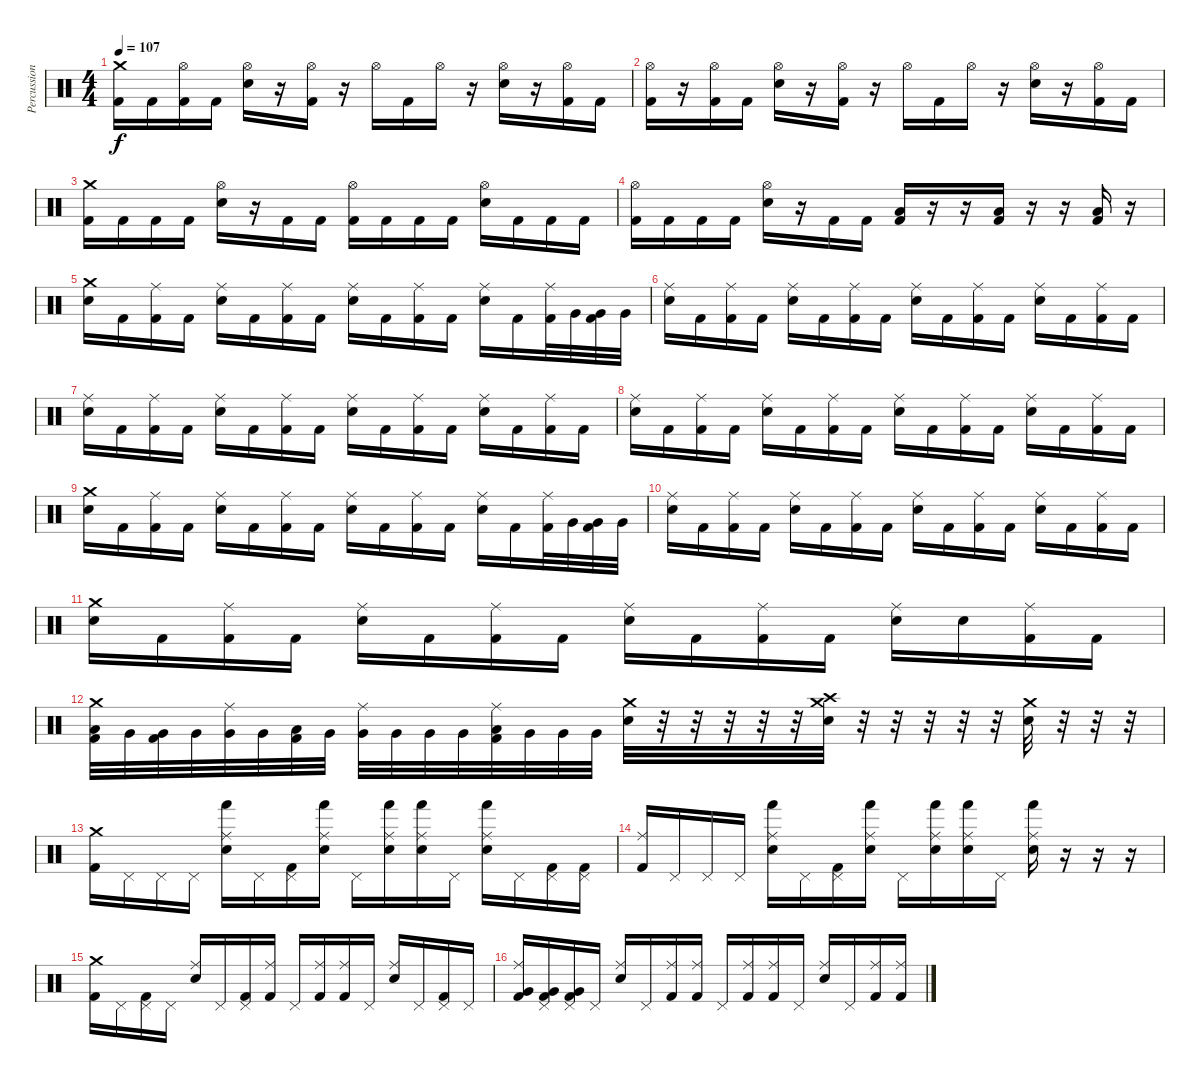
\track ("Percussion" "Percussion") {instrument percussion}
\staff {score}
\articulation defaults
\ts (4 4)
\tempo 107
\clef neutral
\ks c
("Crash medium (hit)" "Kick (hit) 2").16{dy f} "Kick (hit) 2".16 ("Hi-Hat (open)" "Kick (hit) 2").16 "Kick (hit) 2".16 ("Hi-Hat (open)" "Electric Snare (hit)").16 r.16 ("Hi-Hat (open)" "Kick (hit) 2").16 r.16 "Hi-Hat (open)".16 "Kick (hit) 2".16 "Hi-Hat (open)".16 r.16 ("Hi-Hat (open)" "Electric Snare (hit)").16 r.16 ("Hi-Hat (open)" "Kick (hit) 2").16 "Kick (hit) 2".16 |
("Hi-Hat (open)" "Kick (hit) 2").16 r.16 ("Hi-Hat (open)" "Kick (hit) 2").16 "Kick (hit) 2".16 ("Hi-Hat (open)" "Electric Snare (hit)").16 r.16 ("Hi-Hat (open)" "Kick (hit) 2").16 r.16 "Hi-Hat (open)".16 "Kick (hit) 2".16 "Hi-Hat (open)".16 r.16 ("Hi-Hat (open)" "Electric Snare (hit)").16 r.16 ("Hi-Hat (open)" "Kick (hit) 2").16 "Kick (hit) 2".16 |
("Crash medium (hit)" "Kick (hit) 2").16 "Kick (hit) 2".16 "Kick (hit) 2".16 "Kick (hit) 2".16 ("Hi-Hat (open)" "Electric Snare (hit)").16 r.16 "Kick (hit) 2".16 "Kick (hit) 2".16 ("Hi-Hat (open)" "Kick (hit) 2").16 "Kick (hit) 2".16 "Kick (hit) 2".16 "Kick (hit) 2".16 ("Hi-Hat (open)" "Electric Snare (hit)").16 "Kick (hit) 2".16 "Kick (hit) 2".16 "Kick (hit) 2".16 |
("Hi-Hat (open)" "Kick (hit) 2").16 "Kick (hit) 2".16 "Kick (hit) 2".16 "Kick (hit) 2".16 ("Hi-Hat (open)" "Electric Snare (hit)").16 r.16 "Kick (hit) 2".16 "Kick (hit) 2".16 ("Low Tom (hit)" "Kick (hit) 2").16 r.16 r.16 ("Low Tom (hit)" "Kick (hit) 2").16 r.16 r.16 ("Low Tom (hit)" "Kick (hit) 2").16 r.16 |
("Crash medium (hit)" "Electric Snare (hit)").16 "Kick (hit) 2".16 ("Ride (middle)" "Kick (hit) 2").16 "Kick (hit) 2".16 ("Ride (middle)" "Electric Snare (hit)").16 "Kick (hit) 2".16 ("Ride (middle)" "Kick (hit) 2").16 "Kick (hit) 2".16 ("Ride (middle)" "Electric Snare (hit)").16 "Kick (hit) 2".16 ("Ride (middle)" "Kick (hit) 2").16 "Kick (hit) 2".16 ("Ride (middle)" "Electric Snare (hit)").16 "Kick (hit) 2".16 ("Ride (middle)" "Kick (hit) 2").32 "Very Low Tom (hit)".32 ("Very Low Tom (hit)" "Kick (hit) 2").32 "Very Low Tom (hit)".32 |
("Ride (middle)" "Electric Snare (hit)").16 "Kick (hit) 2".16 ("Ride (middle)" "Kick (hit) 2").16 "Kick (hit) 2".16 ("Ride (middle)" "Electric Snare (hit)").16 "Kick (hit) 2".16 ("Ride (middle)" "Kick (hit) 2").16 "Kick (hit) 2".16 ("Ride (middle)" "Electric Snare (hit)").16 "Kick (hit) 2".16 ("Ride (middle)" "Kick (hit) 2").16 "Kick (hit) 2".16 ("Ride (middle)" "Electric Snare (hit)").16 "Kick (hit) 2".16 ("Ride (middle)" "Kick (hit) 2").16 "Kick (hit) 2".16 |
("Ride (middle)" "Electric Snare (hit)").16 "Kick (hit) 2".16 ("Ride (middle)" "Kick (hit) 2").16 "Kick (hit) 2".16 ("Ride (middle)" "Electric Snare (hit)").16 "Kick (hit) 2".16 ("Ride (middle)" "Kick (hit) 2").16 "Kick (hit) 2".16 ("Ride (middle)" "Electric Snare (hit)").16 "Kick (hit) 2".16 ("Ride (middle)" "Kick (hit) 2").16 "Kick (hit) 2".16 ("Ride (middle)" "Electric Snare (hit)").16 "Kick (hit) 2".16 ("Ride (middle)" "Kick (hit) 2").16 "Kick (hit) 2".16 |
("Ride (middle)" "Electric Snare (hit)").16 "Kick (hit) 2".16 ("Ride (middle)" "Kick (hit) 2").16 "Kick (hit) 2".16 ("Ride (middle)" "Electric Snare (hit)").16 "Kick (hit) 2".16 ("Ride (middle)" "Kick (hit) 2").16 "Kick (hit) 2".16 ("Ride (middle)" "Electric Snare (hit)").16 "Kick (hit) 2".16 ("Ride (middle)" "Kick (hit) 2").16 "Kick (hit) 2".16 ("Ride (middle)" "Electric Snare (hit)").16 "Kick (hit) 2".16 ("Ride (middle)" "Kick (hit) 2").16 "Kick (hit) 2".16 |
("Crash medium (hit)" "Electric Snare (hit)").16 "Kick (hit) 2".16 ("Ride (middle)" "Kick (hit) 2").16 "Kick (hit) 2".16 ("Ride (middle)" "Electric Snare (hit)").16 "Kick (hit) 2".16 ("Ride (middle)" "Kick (hit) 2").16 "Kick (hit) 2".16 ("Ride (middle)" "Electric Snare (hit)").16 "Kick (hit) 2".16 ("Ride (middle)" "Kick (hit) 2").16 "Kick (hit) 2".16 ("Ride (middle)" "Electric Snare (hit)").16 "Kick (hit) 2".16 ("Ride (middle)" "Kick (hit) 2").32 "Very Low Tom (hit)".32 ("Very Low Tom (hit)" "Kick (hit) 2").32 "Very Low Tom (hit)".32 |
("Ride (middle)" "Electric Snare (hit)").16 "Kick (hit) 2".16 ("Ride (middle)" "Kick (hit) 2").16 "Kick (hit) 2".16 ("Ride (middle)" "Electric Snare (hit)").16 "Kick (hit) 2".16 ("Ride (middle)" "Kick (hit) 2").16 "Kick (hit) 2".16 ("Ride (middle)" "Electric Snare (hit)").16 "Kick (hit) 2".16 ("Ride (middle)" "Kick (hit) 2").16 "Kick (hit) 2".16 ("Ride (middle)" "Electric Snare (hit)").16 "Kick (hit) 2".16 ("Ride (middle)" "Kick (hit) 2").16 "Kick (hit) 2".16 |
("Crash medium (hit)" "Electric Snare (hit)").16 "Kick (hit) 2".16 ("Ride (middle)" "Kick (hit) 2").16 "Kick (hit) 2".16 ("Ride (middle)" "Electric Snare (hit)").16 "Kick (hit) 2".16 ("Ride (middle)" "Kick (hit) 2").16 "Kick (hit) 2".16 ("Ride (middle)" "Electric Snare (hit)").16 "Kick (hit) 2".16 ("Ride (middle)" "Kick (hit) 2").16 "Kick (hit) 2".16 ("Ride (middle)" "Electric Snare (hit)").16 "Electric Snare (hit)".16 ("Ride (middle)" "Kick (hit) 2").16 "Kick (hit) 2".16 |
("Crash medium (hit)" "Low Tom (hit)" "Kick (hit) 2").32 "Very Low Tom (hit)".32 ("Very Low Tom (hit)" "Kick (hit) 2").32 "Very Low Tom (hit)".32 ("Ride (middle)" "Very Low Tom (hit)").32 "Very Low Tom (hit)".32 ("Low Tom (hit)" "Kick (hit) 2").32 "Very Low Tom (hit)".32 ("Ride (middle)" "Very Low Tom (hit)").32 "Very Low Tom (hit)".32 "Very Low Tom (hit)".32 "Very Low Tom (hit)".32 ("Ride (middle)" "Low Tom (hit)" "Kick (hit) 2").32 "Very Low Tom (hit)".32 "Very Low Tom (hit)".32 "Very Low Tom (hit)".32 ("Crash medium (hit)" "Electric Snare (hit)").32 r.32 r.32 r.32 r.32 r.32 ("Crash medium (hit)" "Crash high (hit)" "Electric Snare (hit)").32 r.32 r.32 r.32 r.32 r.32 ("Crash medium (hit)" "Electric Snare (hit)").32 r.32 r.32 r.32 |
("Crash medium (hit)" "Kick (hit) 2").16 "Pedal Hi-Hat (hit)".16 "Pedal Hi-Hat (hit)".16 "Pedal Hi-Hat (hit)".16 ("Ride (middle)" "Hand (hit)" "Electric Snare (hit)").16 "Pedal Hi-Hat (hit)".16 ("Pedal Hi-Hat (hit)" "Kick (hit) 2").16 ("Ride (middle)" "Hand (hit)" "Electric Snare (hit)").16 "Pedal Hi-Hat (hit)".16 ("Ride (middle)" "Hand (hit)" "Electric Snare (hit)").16 ("Ride (middle)" "Hand (hit)" "Electric Snare (hit)").16 "Pedal Hi-Hat (hit)".16 ("Ride (middle)" "Hand (hit)" "Electric Snare (hit)").16 "Pedal Hi-Hat (hit)".16 ("Pedal Hi-Hat (hit)" "Kick (hit) 2").16 ("Pedal Hi-Hat (hit)" "Kick (hit) 2").16 |
("Ride (middle)" "Kick (hit) 2").16 "Pedal Hi-Hat (hit)".16 "Pedal Hi-Hat (hit)".16 "Pedal Hi-Hat (hit)".16 ("Ride (middle)" "Hand (hit)" "Electric Snare (hit)").16 "Pedal Hi-Hat (hit)".16 ("Pedal Hi-Hat (hit)" "Kick (hit) 2").16 ("Ride (middle)" "Hand (hit)" "Electric Snare (hit)").16 "Pedal Hi-Hat (hit)".16 ("Ride (middle)" "Hand (hit)" "Electric Snare (hit)").16 ("Ride (middle)" "Hand (hit)" "Electric Snare (hit)").16 "Pedal Hi-Hat (hit)".16 ("Ride (middle)" "Hand (hit)" "Electric Snare (hit)").16 r.16 r.16 r.16 |
("Crash medium (hit)" "Kick (hit) 2").16 "Pedal Hi-Hat (hit)".16 ("Pedal Hi-Hat (hit)" "Kick (hit) 2").16 "Pedal Hi-Hat (hit)".16 ("Ride (middle)" "Electric Snare (hit)").16 "Pedal Hi-Hat (hit)".16 ("Pedal Hi-Hat (hit)" "Kick (hit) 2").16 ("Ride (middle)" "Kick (hit) 2").16 "Pedal Hi-Hat (hit)".16 ("Ride (middle)" "Kick (hit) 2").16 ("Ride (middle)" "Kick (hit) 2").16 "Pedal Hi-Hat (hit)".16 ("Ride (middle)" "Electric Snare (hit)").16 "Pedal Hi-Hat (hit)".16 ("Pedal Hi-Hat (hit)" "Kick (hit) 2").16 "Pedal Hi-Hat (hit)".16 |
("Ride (middle)" "Very Low Tom (hit)" "Kick (hit) 2").16 ("Pedal Hi-Hat (hit)" "Very Low Tom (hit)" "Kick (hit) 2").16 ("Pedal Hi-Hat (hit)" "Very Low Tom (hit)" "Kick (hit) 2").16 "Pedal Hi-Hat (hit)".16 ("Ride (middle)" "Electric Snare (hit)").16 "Pedal Hi-Hat (hit)".16 ("Ride (middle)" "Kick (hit) 2").16 ("Ride (middle)" "Kick (hit) 2").16 "Pedal Hi-Hat (hit)".16 ("Ride (middle)" "Kick (hit) 2").16 ("Ride (middle)" "Kick (hit) 2").16 "Pedal Hi-Hat (hit)".16 ("Ride (middle)" "Electric Snare (hit)").16 "Pedal Hi-Hat (hit)".16 ("Ride (middle)" "Kick (hit) 2").16 ("Ride (middle)" "Kick (hit) 2").16
